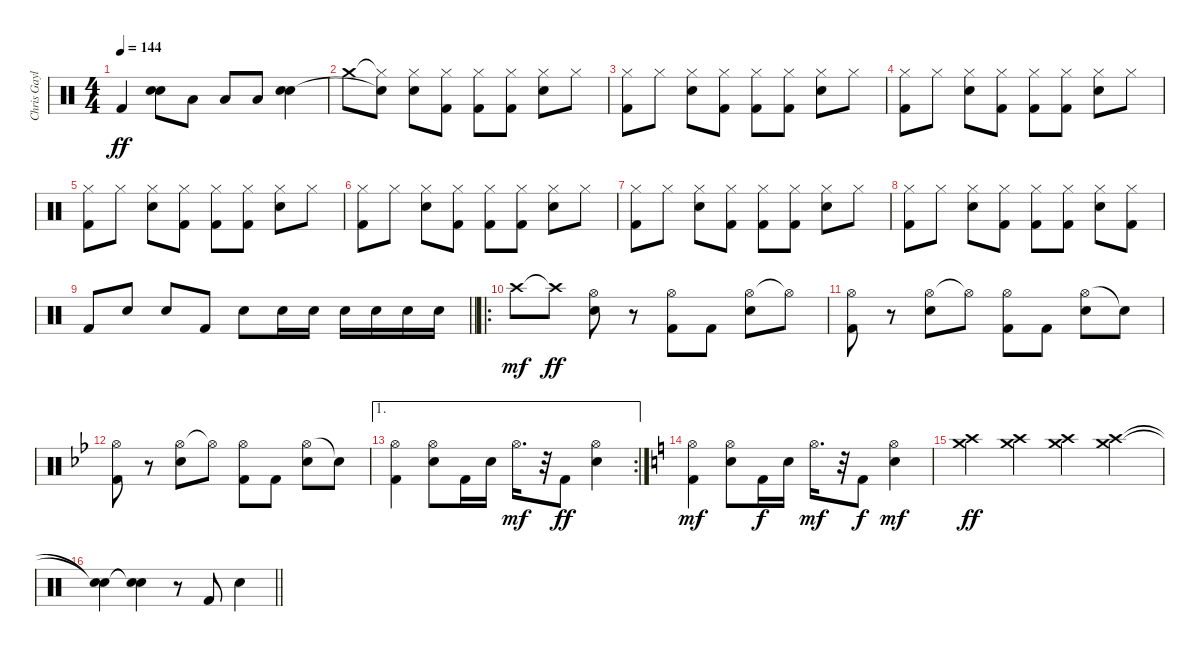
\track ("Chris Gaylor" "Chris Gayl") {instrument percussion}
\staff {score}
\articulation defaults
\ts (4 4)
\tempo 144
\clef neutral
\ks c "Kick (hit) 2".4{dy ff}
("Snare (hit) 2" "Snare (hit) 2").8 "Low Floor Tom (hit)".8 "Low Floor Tom (hit)".8 "Low Tom (hit)".8 ("Snare (hit) 2" "Snare (hit) 2").4 |
"Crash medium (hit)".8 ("Hi-Hat (closed)"{t} "Snare (hit)"{t}).8 ("Hi-Hat (closed)" "Snare (hit) 2").8 ("Hi-Hat (closed)" "Kick (hit) 2").8 ("Hi-Hat (closed)" "Kick (hit) 2").8 ("Hi-Hat (closed)" "Kick (hit) 2").8 ("Hi-Hat (closed)" "Snare (hit) 2").8 "Hi-Hat (closed)".8 |
("Hi-Hat (closed)" "Kick (hit) 2").8 "Hi-Hat (closed)".8 ("Hi-Hat (closed)" "Snare (hit) 2").8 ("Hi-Hat (closed)" "Kick (hit) 2").8 ("Hi-Hat (closed)" "Kick (hit) 2").8 ("Hi-Hat (closed)" "Kick (hit) 2").8 ("Hi-Hat (closed)" "Snare (hit) 2").8 "Hi-Hat (closed)".8 |
("Hi-Hat (closed)" "Kick (hit) 2").8 "Hi-Hat (closed)".8 ("Hi-Hat (closed)" "Snare (hit) 2").8 ("Hi-Hat (closed)" "Kick (hit) 2").8 ("Hi-Hat (closed)" "Kick (hit) 2").8 ("Hi-Hat (closed)" "Kick (hit) 2").8 ("Hi-Hat (closed)" "Snare (hit) 2").8 "Hi-Hat (closed)".8 |
("Hi-Hat (closed)" "Kick (hit) 2").8 "Hi-Hat (closed)".8 ("Hi-Hat (closed)" "Snare (hit) 2").8 ("Hi-Hat (closed)" "Kick (hit) 2").8 ("Hi-Hat (closed)" "Kick (hit) 2").8 ("Hi-Hat (closed)" "Kick (hit) 2").8 ("Hi-Hat (closed)" "Snare (hit) 2").8 "Hi-Hat (closed)".8 |
("Hi-Hat (closed)" "Kick (hit) 2").8 "Hi-Hat (closed)".8 ("Hi-Hat (closed)" "Snare (hit) 2").8 ("Hi-Hat (closed)" "Kick (hit) 2").8 ("Hi-Hat (closed)" "Kick (hit) 2").8 ("Hi-Hat (closed)" "Kick (hit) 2").8 ("Hi-Hat (closed)" "Snare (hit) 2").8 "Hi-Hat (closed)".8 |
("Hi-Hat (closed)" "Kick (hit) 2").8 "Hi-Hat (closed)".8 ("Hi-Hat (closed)" "Snare (hit) 2").8 ("Hi-Hat (closed)" "Kick (hit) 2").8 ("Hi-Hat (closed)" "Kick (hit) 2").8 ("Hi-Hat (closed)" "Kick (hit) 2").8 ("Hi-Hat (closed)" "Snare (hit) 2").8 "Hi-Hat (closed)".8 |
("Hi-Hat (closed)" "Kick (hit) 2").8 "Hi-Hat (closed)".8 ("Hi-Hat (closed)" "Snare (hit) 2").8 ("Hi-Hat (closed)" "Kick (hit) 2").8 ("Hi-Hat (closed)" "Kick (hit) 2").8 ("Hi-Hat (closed)" "Kick (hit) 2").8 ("Hi-Hat (closed)" "Snare (hit) 2").8 ("Hi-Hat (closed)" "Kick (hit) 2").8 |
\barLineRight lightlight "Kick (hit) 2".8 "Snare (hit) 2".8 "Snare (hit) 2".8 "Kick (hit) 2".8 "Snare (hit) 2".8 "Snare (hit) 2".16 "Snare (hit) 2".16 "Snare (hit) 2".16 "Snare (hit) 2".16 "Snare (hit) 2".16 "Snare (hit) 2".16
|
\ro "Crash high (hit)".8{dy mf} "Crash high (hit)"{t}.8{dy ff}
("Hi-Hat (open)" "Snare (hit) 2").8 r.8 ("Hi-Hat (open)" "Kick (hit) 2").8 "Kick (hit) 2".8 ("Hi-Hat (open)" "Snare (hit) 2").8 "Hi-Hat (open)"{t}.8 |
("Hi-Hat (open)" "Kick (hit) 2").8 r.8 ("Hi-Hat (open)" "Snare (hit) 2").8 "Hi-Hat (open)"{t}.8 ("Hi-Hat (open)" "Kick (hit) 2").8 "Kick (hit) 2".8 ("Hi-Hat (open)" "Snare (hit) 2").8 "Snare (hit)"{t}.8 |
\ks bb
("Hi-Hat (open)" "Kick (hit) 2").8 r.8 ("Hi-Hat (open)" "Snare (hit) 2").8 "Hi-Hat (open)"{t}.8 ("Hi-Hat (open)" "Kick (hit) 2").8 "Kick (hit) 2".8 ("Hi-Hat (open)" "Snare (hit) 2").8 "Snare (hit)"{t}.8 |
\ae 1
\rc 2
("Hi-Hat (open)" "Kick (hit) 2").4 ("Hi-Hat (open)" "Snare (hit) 2").8 "Kick (hit) 2".16 "Snare (hit) 2".16 "Hi-Hat (open)".16{d dy mf} r.32 "Kick (hit) 2".8{dy ff} ("Hi-Hat (open)" "Snare (hit) 2").4 |
\ks c
("Hi-Hat (open)" "Kick (hit) 2").4{dy mf} ("Hi-Hat (open)" "Snare (hit) 2").8 "Kick (hit) 2".16{dy f} "Snare (hit) 2".16 "Hi-Hat (open)".16{d dy mf} r.32 "Kick (hit) 2".8{dy f} ("Hi-Hat (open)" "Snare (hit) 2").4{dy mf} |
("Crash medium (hit)" "Crash high (hit)").4{dy ff} ("Crash medium (hit)" "Crash high (hit)").4 ("Crash medium (hit)" "Crash high (hit)").4 ("Crash medium (hit)" "Crash high (hit)").4 |
\barLineRight lightlight
("Snare (hit)"{t} "Snare (hit)"{t}).4 ("Snare (hit)"{t} "Snare (hit)"{t}).4 r.8 "Kick (hit) 2".8 "Snare (hit) 2".4
